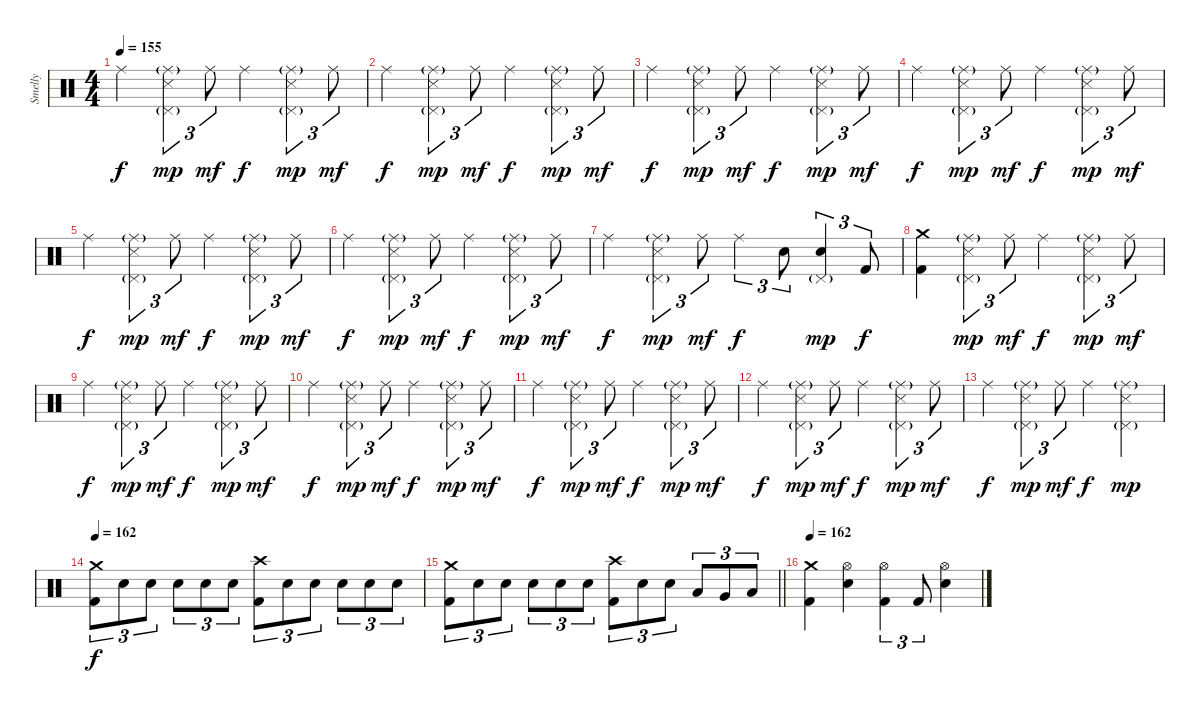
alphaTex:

\track ("Smelly" "Smelly") {instrument percussion}
\staff {score}
\articulation defaults
\ts (4 4)
\tempo 155
\clef neutral
\ks c "Ride (middle)".4{dy f}
("Ride (middle)"{g} "Pedal Hi-Hat (hit)"{g} "Snare (side stick) 3").4{tu (3 2) dy mp} "Ride (middle)".8{tu (3 2) dy mf} "Ride (middle)".4{dy f} ("Ride (middle)"{g} "Pedal Hi-Hat (hit)"{g} "Snare (side stick) 3").4{tu (3 2) dy mp} "Ride (middle)".8{tu (3 2) dy mf} |
"Ride (middle)".4{dy f} ("Ride (middle)"{g} "Pedal Hi-Hat (hit)"{g} "Snare (side stick) 3").4{tu (3 2) dy mp} "Ride (middle)".8{tu (3 2) dy mf} "Ride (middle)".4{dy f} ("Ride (middle)"{g} "Pedal Hi-Hat (hit)"{g} "Snare (side stick) 3").4{tu (3 2) dy mp} "Ride (middle)".8{tu (3 2) dy mf} |
"Ride (middle)".4{dy f} ("Ride (middle)"{g} "Pedal Hi-Hat (hit)"{g} "Snare (side stick) 3").4{tu (3 2) dy mp} "Ride (middle)".8{tu (3 2) dy mf} "Ride (middle)".4{dy f} ("Ride (middle)"{g} "Pedal Hi-Hat (hit)"{g} "Snare (side stick) 3").4{tu (3 2) dy mp} "Ride (middle)".8{tu (3 2) dy mf} |
"Ride (middle)".4{dy f} ("Ride (middle)"{g} "Pedal Hi-Hat (hit)"{g} "Snare (side stick) 3").4{tu (3 2) dy mp} "Ride (middle)".8{tu (3 2) dy mf} "Ride (middle)".4{dy f} ("Ride (middle)"{g} "Pedal Hi-Hat (hit)"{g} "Snare (side stick) 3").4{tu (3 2) dy mp} "Ride (middle)".8{tu (3 2) dy mf} |
"Ride (middle)".4{dy f} ("Ride (middle)"{g} "Pedal Hi-Hat (hit)"{g} "Snare (side stick) 3").4{tu (3 2) dy mp} "Ride (middle)".8{tu (3 2) dy mf} "Ride (middle)".4{dy f} ("Ride (middle)"{g} "Pedal Hi-Hat (hit)"{g} "Snare (side stick) 3").4{tu (3 2) dy mp} "Ride (middle)".8{tu (3 2) dy mf} |
"Ride (middle)".4{dy f} ("Ride (middle)"{g} "Pedal Hi-Hat (hit)"{g} "Snare (side stick) 3").4{tu (3 2) dy mp} "Ride (middle)".8{tu (3 2) dy mf} "Ride (middle)".4{dy f} ("Ride (middle)"{g} "Pedal Hi-Hat (hit)"{g} "Snare (side stick) 3").4{tu (3 2) dy mp} "Ride (middle)".8{tu (3 2) dy mf} |
"Ride (middle)".4{dy f} ("Ride (middle)"{g} "Pedal Hi-Hat (hit)"{g} "Snare (side stick) 3").4{tu (3 2) dy mp} "Ride (middle)".8{tu (3 2) dy mf} "Ride (middle)".4{tu (3 2) dy f} "Electric Snare (hit)".8{tu (3 2)} ("Pedal Hi-Hat (hit)"{g} "Electric Snare (hit)").4{tu (3 2) dy mp} "Kick (hit) 2".8{tu (3 2) dy f} |
("Crash medium (hit)" "Kick (hit) 2").4 ("Ride (middle)"{g} "Pedal Hi-Hat (hit)"{g} "Snare (side stick) 3").4{tu (3 2) dy mp} "Ride (middle)".8{tu (3 2) dy mf} "Ride (middle)".4{dy f} ("Ride (middle)"{g} "Pedal Hi-Hat (hit)"{g} "Snare (side stick) 3").4{tu (3 2) dy mp} "Ride (middle)".8{tu (3 2) dy mf} |
"Ride (middle)".4{dy f} ("Ride (middle)"{g} "Pedal Hi-Hat (hit)"{g} "Snare (side stick) 3").4{tu (3 2) dy mp} "Ride (middle)".8{tu (3 2) dy mf} "Ride (middle)".4{dy f} ("Ride (middle)"{g} "Pedal Hi-Hat (hit)"{g} "Snare (side stick) 3").4{tu (3 2) dy mp} "Ride (middle)".8{tu (3 2) dy mf} |
"Ride (middle)".4{dy f} ("Ride (middle)"{g} "Pedal Hi-Hat (hit)"{g} "Snare (side stick) 3").4{tu (3 2) dy mp} "Ride (middle)".8{tu (3 2) dy mf} "Ride (middle)".4{dy f} ("Ride (middle)"{g} "Pedal Hi-Hat (hit)"{g} "Snare (side stick) 3").4{tu (3 2) dy mp} "Ride (middle)".8{tu (3 2) dy mf} |
"Ride (middle)".4{dy f} ("Ride (middle)"{g} "Pedal Hi-Hat (hit)"{g} "Snare (side stick) 3").4{tu (3 2) dy mp} "Ride (middle)".8{tu (3 2) dy mf} "Ride (middle)".4{dy f} ("Ride (middle)"{g} "Pedal Hi-Hat (hit)"{g} "Snare (side stick) 3").4{tu (3 2) dy mp} "Ride (middle)".8{tu (3 2) dy mf} |
"Ride (middle)".4{dy f} ("Ride (middle)"{g} "Pedal Hi-Hat (hit)"{g} "Snare (side stick) 3").4{tu (3 2) dy mp} "Ride (middle)".8{tu (3 2) dy mf} "Ride (middle)".4{dy f} ("Ride (middle)"{g} "Pedal Hi-Hat (hit)"{g} "Snare (side stick) 3").4{tu (3 2) dy mp} "Ride (middle)".8{tu (3 2) dy mf} |
"Ride (middle)".4{dy f} ("Ride (middle)"{g} "Pedal Hi-Hat (hit)"{g} "Snare (side stick) 3").4{tu (3 2) dy mp} "Ride (middle)".8{tu (3 2) dy mf} "Ride (middle)".4{dy f} ("Ride (middle)"{g} "Pedal Hi-Hat (hit)"{g} "Snare (side stick) 3").4{dy mp} |
\tempo 162
("Crash medium (hit)" "Kick (hit) 2").8{tu (3 2) dy f} "Electric Snare (hit)".8{tu (3 2)} "Electric Snare (hit)".8{tu (3 2)} "Electric Snare (hit)".8{tu (3 2)} "Electric Snare (hit)".8{tu (3 2)} "Electric Snare (hit)".8{tu (3 2)} ("Crash high (hit)" "Kick (hit) 2").8{tu (3 2)} "Electric Snare (hit)".8{tu (3 2)} "Electric Snare (hit)".8{tu (3 2)} "Electric Snare (hit)".8{tu (3 2)} "Electric Snare (hit)".8{tu (3 2)} "Electric Snare (hit)".8{tu (3 2)} |
\barLineRight lightlight
("Crash medium (hit)" "Kick (hit) 2").8{tu (3 2)} "Electric Snare (hit)".8{tu (3 2)} "Electric Snare (hit)".8{tu (3 2)} "Electric Snare (hit)".8{tu (3 2)} "Electric Snare (hit)".8{tu (3 2)} "Electric Snare (hit)".8{tu (3 2)} ("Crash high (hit)" "Kick (hit) 2").8{tu (3 2)} "Electric Snare (hit)".8{tu (3 2)} "Electric Snare (hit)".8{tu (3 2)} "Low Tom (hit)".8{tu (3 2)} "Very Low Tom (hit)".8{tu (3 2)} "Low Floor Tom (hit)".8{tu (3 2)} |
\section ("" "")
\tempo 162
("Crash medium (hit)" "Kick (hit) 2").4 ("Hi-Hat (open)" "Electric Snare (hit)").4 ("Hi-Hat (open)" "Kick (hit) 2").4{tu (3 2)} "Kick (hit) 2".8{tu (3 2)} ("Hi-Hat (open)" "Electric Snare (hit)").4
